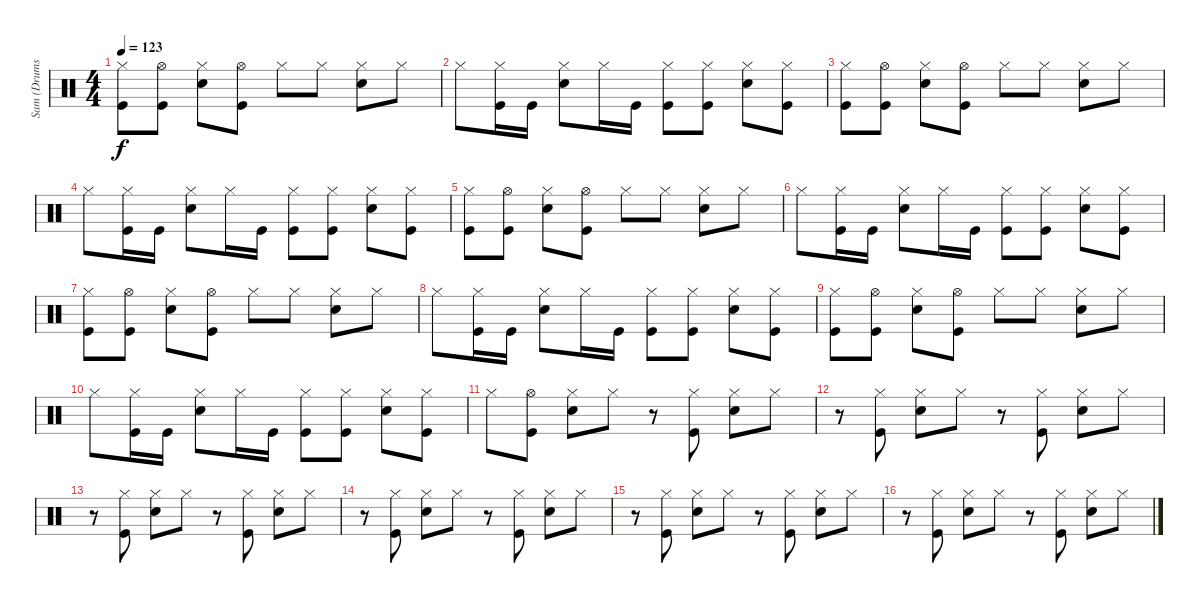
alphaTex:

\track ("Sam (Drums)" "Sam (Drums") {instrument percussion}
\staff {score}
\articulation defaults
\ts (4 4)
\tempo 123
\clef neutral
\ks c
("Hi-Hat (closed)" "Kick (hit)").8{dy f} ("Hi-Hat (open)" "Kick (hit)").8 ("Hi-Hat (closed)" "Snare (hit) 2").8 ("Hi-Hat (open)" "Kick (hit)").8 "Hi-Hat (closed)".8 "Hi-Hat (closed)".8 ("Hi-Hat (closed)" "Snare (hit) 2").8 "Hi-Hat (closed)".8 |
"Hi-Hat (closed)".8 ("Hi-Hat (closed)" "Kick (hit)").16 "Kick (hit)".16 ("Hi-Hat (closed)" "Snare (hit) 2").8 "Hi-Hat (closed)".16 "Kick (hit)".16 ("Hi-Hat (closed)" "Kick (hit)").8 ("Hi-Hat (closed)" "Kick (hit)").8 ("Hi-Hat (closed)" "Snare (hit) 2").8 ("Hi-Hat (closed)" "Kick (hit)").8 |
("Hi-Hat (closed)" "Kick (hit)").8 ("Hi-Hat (open)" "Kick (hit)").8 ("Hi-Hat (closed)" "Snare (hit) 2").8 ("Hi-Hat (open)" "Kick (hit)").8 "Hi-Hat (closed)".8 "Hi-Hat (closed)".8 ("Hi-Hat (closed)" "Snare (hit) 2").8 "Hi-Hat (closed)".8 |
"Hi-Hat (closed)".8 ("Hi-Hat (closed)" "Kick (hit)").16 "Kick (hit)".16 ("Hi-Hat (closed)" "Snare (hit) 2").8 "Hi-Hat (closed)".16 "Kick (hit)".16 ("Hi-Hat (closed)" "Kick (hit)").8 ("Hi-Hat (closed)" "Kick (hit)").8 ("Hi-Hat (closed)" "Snare (hit) 2").8 ("Hi-Hat (closed)" "Kick (hit)").8 |
("Hi-Hat (closed)" "Kick (hit)").8 ("Hi-Hat (open)" "Kick (hit)").8 ("Hi-Hat (closed)" "Snare (hit) 2").8 ("Hi-Hat (open)" "Kick (hit)").8 "Hi-Hat (closed)".8 "Hi-Hat (closed)".8 ("Hi-Hat (closed)" "Snare (hit) 2").8 "Hi-Hat (closed)".8 |
"Hi-Hat (closed)".8 ("Hi-Hat (closed)" "Kick (hit)").16 "Kick (hit)".16 ("Hi-Hat (closed)" "Snare (hit) 2").8 "Hi-Hat (closed)".16 "Kick (hit)".16 ("Hi-Hat (closed)" "Kick (hit)").8 ("Hi-Hat (closed)" "Kick (hit)").8 ("Hi-Hat (closed)" "Snare (hit) 2").8 ("Hi-Hat (closed)" "Kick (hit)").8 |
("Hi-Hat (closed)" "Kick (hit)").8 ("Hi-Hat (open)" "Kick (hit)").8 ("Hi-Hat (closed)" "Snare (hit) 2").8 ("Hi-Hat (open)" "Kick (hit)").8 "Hi-Hat (closed)".8 "Hi-Hat (closed)".8 ("Hi-Hat (closed)" "Snare (hit) 2").8 "Hi-Hat (closed)".8 |
"Hi-Hat (closed)".8 ("Hi-Hat (closed)" "Kick (hit)").16 "Kick (hit)".16 ("Hi-Hat (closed)" "Snare (hit) 2").8 "Hi-Hat (closed)".16 "Kick (hit)".16 ("Hi-Hat (closed)" "Kick (hit)").8 ("Hi-Hat (closed)" "Kick (hit)").8 ("Hi-Hat (closed)" "Snare (hit) 2").8 ("Hi-Hat (closed)" "Kick (hit)").8 |
("Hi-Hat (closed)" "Kick (hit)").8 ("Hi-Hat (open)" "Kick (hit)").8 ("Hi-Hat (closed)" "Snare (hit) 2").8 ("Hi-Hat (open)" "Kick (hit)").8 "Hi-Hat (closed)".8 "Hi-Hat (closed)".8 ("Hi-Hat (closed)" "Snare (hit) 2").8 "Hi-Hat (closed)".8 |
"Hi-Hat (closed)".8 ("Hi-Hat (closed)" "Kick (hit)").16 "Kick (hit)".16 ("Hi-Hat (closed)" "Snare (hit) 2").8 "Hi-Hat (closed)".16 "Kick (hit)".16 ("Hi-Hat (closed)" "Kick (hit)").8 ("Hi-Hat (closed)" "Kick (hit)").8 ("Hi-Hat (closed)" "Snare (hit) 2").8 ("Hi-Hat (closed)" "Kick (hit)").8 |
"Hi-Hat (closed)".8 ("Hi-Hat (open)" "Kick (hit)").8 ("Hi-Hat (closed)" "Snare (hit) 2").8 "Hi-Hat (closed)".8 r.8 ("Hi-Hat (closed)" "Kick (hit)").8 ("Hi-Hat (closed)" "Snare (hit) 2").8 "Hi-Hat (closed)".8 |
r.8 ("Hi-Hat (closed)" "Kick (hit)").8 ("Hi-Hat (closed)" "Snare (hit) 2").8 "Hi-Hat (closed)".8 r.8 ("Hi-Hat (closed)" "Kick (hit)").8 ("Hi-Hat (closed)" "Snare (hit) 2").8 "Hi-Hat (closed)".8 |
r.8 ("Hi-Hat (closed)" "Kick (hit)").8 ("Hi-Hat (closed)" "Snare (hit) 2").8 "Hi-Hat (closed)".8 r.8 ("Hi-Hat (closed)" "Kick (hit)").8 ("Hi-Hat (closed)" "Snare (hit) 2").8 "Hi-Hat (closed)".8 |
r.8 ("Hi-Hat (closed)" "Kick (hit)").8 ("Hi-Hat (closed)" "Snare (hit) 2").8 "Hi-Hat (closed)".8 r.8 ("Hi-Hat (closed)" "Kick (hit)").8 ("Hi-Hat (closed)" "Snare (hit) 2").8 "Hi-Hat (closed)".8 |
r.8 ("Hi-Hat (closed)" "Kick (hit)").8 ("Hi-Hat (closed)" "Snare (hit) 2").8 "Hi-Hat (closed)".8 r.8 ("Hi-Hat (closed)" "Kick (hit)").8 ("Hi-Hat (closed)" "Snare (hit) 2").8 "Hi-Hat (closed)".8 |
r.8 ("Hi-Hat (closed)" "Kick (hit)").8 ("Hi-Hat (closed)" "Snare (hit) 2").8 "Hi-Hat (closed)".8 r.8 ("Hi-Hat (closed)" "Kick (hit)").8 ("Hi-Hat (closed)" "Snare (hit) 2").8 "Hi-Hat (closed)".8
